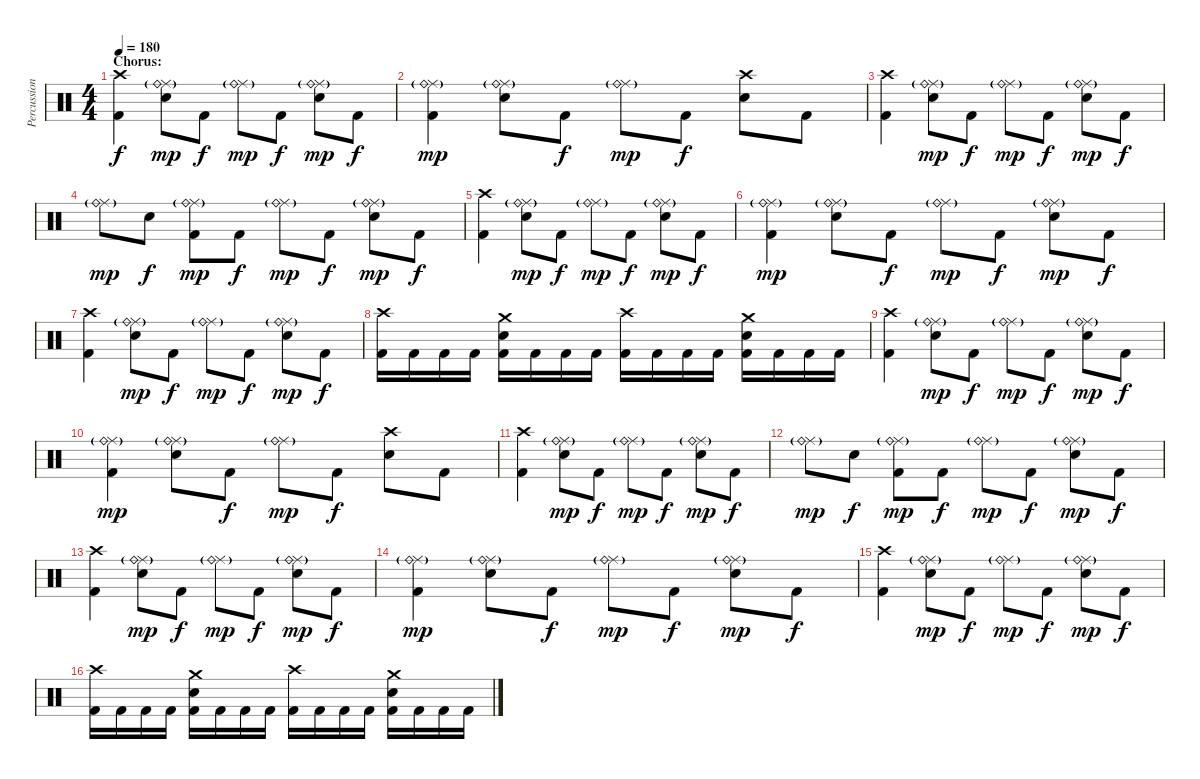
\track ("Percussion" "Percussion") {instrument percussion}
\staff {score}
\articulation defaults
\ts (4 4)
\section ("" "Chorus:")
\tempo 180
\clef neutral
\ks c
("Crash high (hit)" "Kick (hit) 2").4{dy f} ("Ride (middle)" "Ride (bell)"{g} "Electric Snare (hit)").8{dy mp} "Kick (hit) 2".8{dy f} ("Ride (middle)" "Ride (bell)"{g}).8{dy mp} "Kick (hit) 2".8{dy f} ("Ride (middle)" "Ride (bell)"{g} "Electric Snare (hit)").8{dy mp} "Kick (hit) 2".8{dy f} |
("Ride (middle)" "Ride (bell)"{g} "Kick (hit) 2").4{dy mp} ("Ride (middle)" "Ride (bell)"{g} "Electric Snare (hit)").8 "Kick (hit) 2".8{dy f} ("Ride (middle)" "Ride (bell)"{g}).8{dy mp} "Kick (hit) 2".8{dy f} ("Crash high (hit)" "Electric Snare (hit)").8 "Kick (hit) 2".8 |
("Crash high (hit)" "Kick (hit) 2").4 ("Ride (middle)" "Ride (bell)"{g} "Electric Snare (hit)").8{dy mp} "Kick (hit) 2".8{dy f} ("Ride (middle)" "Ride (bell)"{g}).8{dy mp} "Kick (hit) 2".8{dy f} ("Ride (middle)" "Ride (bell)"{g} "Electric Snare (hit)").8{dy mp} "Kick (hit) 2".8{dy f} |
("Ride (middle)" "Ride (bell)"{g}).8{dy mp} "Electric Snare (hit)".8{dy f} ("Ride (middle)" "Ride (bell)"{g} "Kick (hit) 2").8{dy mp} "Kick (hit) 2".8{dy f} ("Ride (middle)" "Ride (bell)"{g}).8{dy mp} "Kick (hit) 2".8{dy f} ("Ride (middle)" "Ride (bell)"{g} "Electric Snare (hit)").8{dy mp} "Kick (hit) 2".8{dy f} |
("Crash high (hit)" "Kick (hit) 2").4 ("Ride (middle)" "Ride (bell)"{g} "Electric Snare (hit)").8{dy mp} "Kick (hit) 2".8{dy f} ("Ride (middle)" "Ride (bell)"{g}).8{dy mp} "Kick (hit) 2".8{dy f} ("Ride (middle)" "Ride (bell)"{g} "Electric Snare (hit)").8{dy mp} "Kick (hit) 2".8{dy f} |
("Ride (middle)" "Ride (bell)"{g} "Kick (hit) 2").4{dy mp} ("Ride (middle)" "Ride (bell)"{g} "Electric Snare (hit)").8 "Kick (hit) 2".8{dy f} ("Ride (middle)" "Ride (bell)"{g}).8{dy mp} "Kick (hit) 2".8{dy f} ("Ride (middle)" "Ride (bell)"{g} "Electric Snare (hit)").8{dy mp} "Kick (hit) 2".8{dy f} |
("Crash high (hit)" "Kick (hit) 2").4 ("Ride (middle)" "Ride (bell)"{g} "Electric Snare (hit)").8{dy mp} "Kick (hit) 2".8{dy f} ("Ride (middle)" "Ride (bell)"{g}).8{dy mp} "Kick (hit) 2".8{dy f} ("Ride (middle)" "Ride (bell)"{g} "Electric Snare (hit)").8{dy mp} "Kick (hit) 2".8{dy f} |
("Crash high (hit)" "Kick (hit) 2").16 "Kick (hit) 2".16 "Kick (hit) 2".16 "Kick (hit) 2".16 ("Crash medium (hit)" "Electric Snare (hit)" "Kick (hit) 2").16 "Kick (hit) 2".16 "Kick (hit) 2".16 "Kick (hit) 2".16 ("Crash high (hit)" "Kick (hit) 2").16 "Kick (hit) 2".16 "Kick (hit) 2".16 "Kick (hit) 2".16 ("Crash medium (hit)" "Electric Snare (hit)" "Kick (hit) 2").16 "Kick (hit) 2".16 "Kick (hit) 2".16 "Kick (hit) 2".16 |
("Crash high (hit)" "Kick (hit) 2").4 ("Ride (middle)" "Ride (bell)"{g} "Electric Snare (hit)").8{dy mp} "Kick (hit) 2".8{dy f} ("Ride (middle)" "Ride (bell)"{g}).8{dy mp} "Kick (hit) 2".8{dy f} ("Ride (middle)" "Ride (bell)"{g} "Electric Snare (hit)").8{dy mp} "Kick (hit) 2".8{dy f} |
("Ride (middle)" "Ride (bell)"{g} "Kick (hit) 2").4{dy mp} ("Ride (middle)" "Ride (bell)"{g} "Electric Snare (hit)").8 "Kick (hit) 2".8{dy f} ("Ride (middle)" "Ride (bell)"{g}).8{dy mp} "Kick (hit) 2".8{dy f} ("Crash high (hit)" "Electric Snare (hit)").8 "Kick (hit) 2".8 |
("Crash high (hit)" "Kick (hit) 2").4 ("Ride (middle)" "Ride (bell)"{g} "Electric Snare (hit)").8{dy mp} "Kick (hit) 2".8{dy f} ("Ride (middle)" "Ride (bell)"{g}).8{dy mp} "Kick (hit) 2".8{dy f} ("Ride (middle)" "Ride (bell)"{g} "Electric Snare (hit)").8{dy mp} "Kick (hit) 2".8{dy f} |
("Ride (middle)" "Ride (bell)"{g}).8{dy mp} "Electric Snare (hit)".8{dy f} ("Ride (middle)" "Ride (bell)"{g} "Kick (hit) 2").8{dy mp} "Kick (hit) 2".8{dy f} ("Ride (middle)" "Ride (bell)"{g}).8{dy mp} "Kick (hit) 2".8{dy f} ("Ride (middle)" "Ride (bell)"{g} "Electric Snare (hit)").8{dy mp} "Kick (hit) 2".8{dy f} |
("Crash high (hit)" "Kick (hit) 2").4 ("Ride (middle)" "Ride (bell)"{g} "Electric Snare (hit)").8{dy mp} "Kick (hit) 2".8{dy f} ("Ride (middle)" "Ride (bell)"{g}).8{dy mp} "Kick (hit) 2".8{dy f} ("Ride (middle)" "Ride (bell)"{g} "Electric Snare (hit)").8{dy mp} "Kick (hit) 2".8{dy f} |
("Ride (middle)" "Ride (bell)"{g} "Kick (hit) 2").4{dy mp} ("Ride (middle)" "Ride (bell)"{g} "Electric Snare (hit)").8 "Kick (hit) 2".8{dy f} ("Ride (middle)" "Ride (bell)"{g}).8{dy mp} "Kick (hit) 2".8{dy f} ("Ride (middle)" "Ride (bell)"{g} "Electric Snare (hit)").8{dy mp} "Kick (hit) 2".8{dy f} |
("Crash high (hit)" "Kick (hit) 2").4 ("Ride (middle)" "Ride (bell)"{g} "Electric Snare (hit)").8{dy mp} "Kick (hit) 2".8{dy f} ("Ride (middle)" "Ride (bell)"{g}).8{dy mp} "Kick (hit) 2".8{dy f} ("Ride (middle)" "Ride (bell)"{g} "Electric Snare (hit)").8{dy mp} "Kick (hit) 2".8{dy f} |
("Crash high (hit)" "Kick (hit) 2").16 "Kick (hit) 2".16 "Kick (hit) 2".16 "Kick (hit) 2".16 ("Crash medium (hit)" "Electric Snare (hit)" "Kick (hit) 2").16 "Kick (hit) 2".16 "Kick (hit) 2".16 "Kick (hit) 2".16 ("Crash high (hit)" "Kick (hit) 2").16 "Kick (hit) 2".16 "Kick (hit) 2".16 "Kick (hit) 2".16 ("Crash medium (hit)" "Electric Snare (hit)" "Kick (hit) 2").16 "Kick (hit) 2".16 "Kick (hit) 2".16 "Kick (hit) 2".16
